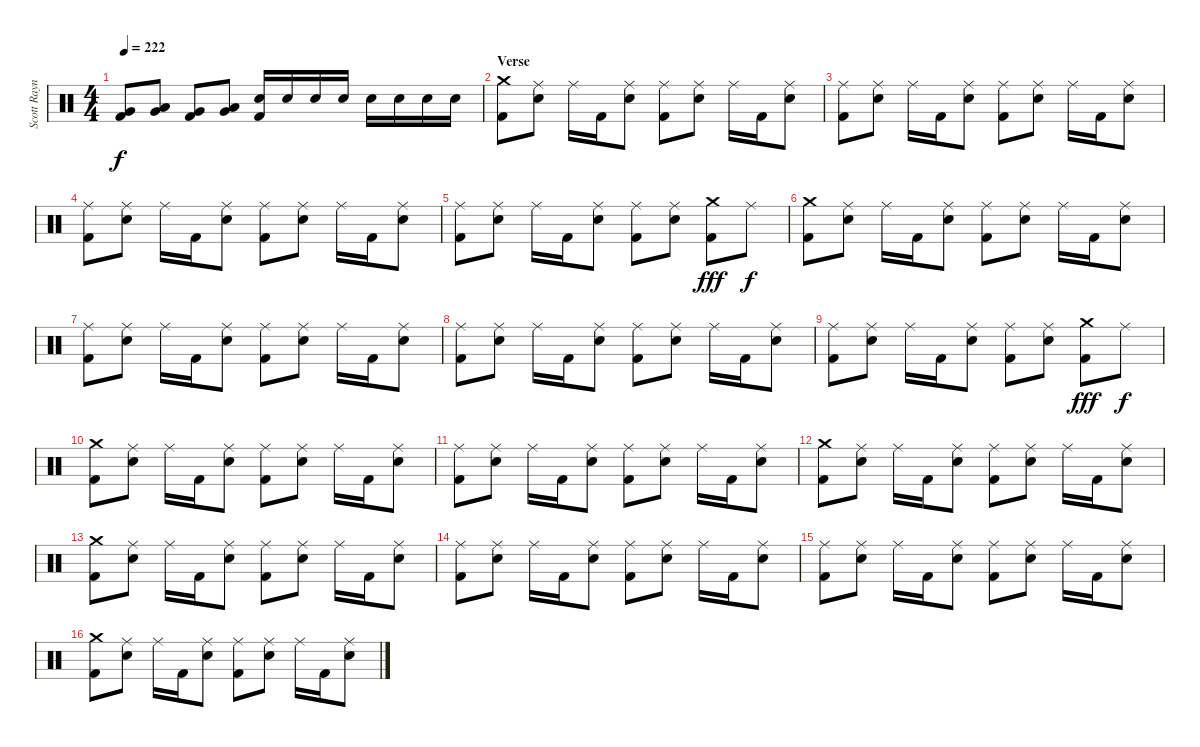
\track ("Scott Raynor - Bateria/Drums" "Scott Rayn") {instrument percussion}
\staff {score}
\articulation defaults
\ts (4 4)
\tempo 222
\clef neutral
\ks c
("Very Low Tom (hit)" "Kick (hit) 2").8{dy f} ("Low Tom (hit)" "Very Low Tom (hit)").8 ("Very Low Tom (hit)" "Kick (hit) 2").8 ("Low Tom (hit)" "Very Low Tom (hit)").8 ("Electric Snare (hit)" "Kick (hit) 2").16 "Electric Snare (hit)".16 "Electric Snare (hit)".16 "Electric Snare (hit)".16 "Electric Snare (hit)".16 "Electric Snare (hit)".16 "Electric Snare (hit)".16 "Electric Snare (hit)".16 |
\section ("" "Verse")
("Crash medium (hit)" "Kick (hit) 2").8 ("Ride (middle)" "Electric Snare (hit)").8 "Ride (middle)".16 "Kick (hit) 2".16 ("Ride (middle)" "Electric Snare (hit)").8 ("Ride (middle)" "Kick (hit) 2").8 ("Ride (middle)" "Electric Snare (hit)").8 "Ride (middle)".16 "Kick (hit) 2".16 ("Ride (middle)" "Electric Snare (hit)").8 |
("Ride (middle)" "Kick (hit) 2").8 ("Ride (middle)" "Electric Snare (hit)").8 "Ride (middle)".16 "Kick (hit) 2".16 ("Ride (middle)" "Electric Snare (hit)").8 ("Ride (middle)" "Kick (hit) 2").8 ("Ride (middle)" "Electric Snare (hit)").8 "Ride (middle)".16 "Kick (hit) 2".16 ("Ride (middle)" "Electric Snare (hit)").8 |
("Ride (middle)" "Kick (hit) 2").8 ("Ride (middle)" "Electric Snare (hit)").8 "Ride (middle)".16 "Kick (hit) 2".16 ("Ride (middle)" "Electric Snare (hit)").8 ("Ride (middle)" "Kick (hit) 2").8 ("Ride (middle)" "Electric Snare (hit)").8 "Ride (middle)".16 "Kick (hit) 2".16 ("Ride (middle)" "Electric Snare (hit)").8 |
("Ride (middle)" "Kick (hit) 2").8 ("Ride (middle)" "Electric Snare (hit)").8 "Ride (middle)".16 "Kick (hit) 2".16 ("Ride (middle)" "Electric Snare (hit)").8 ("Ride (middle)" "Kick (hit) 2").8 ("Ride (middle)" "Electric Snare (hit)").8 ("Crash medium (hit)" "Kick (hit) 2").8{dy fff} "Ride (middle)".8{dy f} |
("Crash medium (hit)" "Kick (hit) 2").8 ("Ride (middle)" "Electric Snare (hit)").8 "Ride (middle)".16 "Kick (hit) 2".16 ("Ride (middle)" "Electric Snare (hit)").8 ("Ride (middle)" "Kick (hit) 2").8 ("Ride (middle)" "Electric Snare (hit)").8 "Ride (middle)".16 "Kick (hit) 2".16 ("Ride (middle)" "Electric Snare (hit)").8 |
("Ride (middle)" "Kick (hit) 2").8 ("Ride (middle)" "Electric Snare (hit)").8 "Ride (middle)".16 "Kick (hit) 2".16 ("Ride (middle)" "Electric Snare (hit)").8 ("Ride (middle)" "Kick (hit) 2").8 ("Ride (middle)" "Electric Snare (hit)").8 "Ride (middle)".16 "Kick (hit) 2".16 ("Ride (middle)" "Electric Snare (hit)").8 |
("Ride (middle)" "Kick (hit) 2").8 ("Ride (middle)" "Electric Snare (hit)").8 "Ride (middle)".16 "Kick (hit) 2".16 ("Ride (middle)" "Electric Snare (hit)").8 ("Ride (middle)" "Kick (hit) 2").8 ("Ride (middle)" "Electric Snare (hit)").8 "Ride (middle)".16 "Kick (hit) 2".16 ("Ride (middle)" "Electric Snare (hit)").8 |
("Ride (middle)" "Kick (hit) 2").8 ("Ride (middle)" "Electric Snare (hit)").8 "Ride (middle)".16 "Kick (hit) 2".16 ("Ride (middle)" "Electric Snare (hit)").8 ("Ride (middle)" "Kick (hit) 2").8 ("Ride (middle)" "Electric Snare (hit)").8 ("Crash medium (hit)" "Kick (hit) 2").8{dy fff} "Ride (middle)".8{dy f} |
("Crash medium (hit)" "Kick (hit) 2").8 ("Ride (middle)" "Electric Snare (hit)").8 "Ride (middle)".16 "Kick (hit) 2".16 ("Ride (middle)" "Electric Snare (hit)").8 ("Ride (middle)" "Kick (hit) 2").8 ("Ride (middle)" "Electric Snare (hit)").8 "Ride (middle)".16 "Kick (hit) 2".16 ("Ride (middle)" "Electric Snare (hit)").8 |
("Ride (middle)" "Kick (hit) 2").8 ("Ride (middle)" "Electric Snare (hit)").8 "Ride (middle)".16 "Kick (hit) 2".16 ("Ride (middle)" "Electric Snare (hit)").8 ("Ride (middle)" "Kick (hit) 2").8 ("Ride (middle)" "Electric Snare (hit)").8 "Ride (middle)".16 "Kick (hit) 2".16 ("Ride (middle)" "Electric Snare (hit)").8 |
("Crash medium (hit)" "Kick (hit) 2").8 ("Ride (middle)" "Electric Snare (hit)").8 "Ride (middle)".16 "Kick (hit) 2".16 ("Ride (middle)" "Electric Snare (hit)").8 ("Ride (middle)" "Kick (hit) 2").8 ("Ride (middle)" "Electric Snare (hit)").8 "Ride (middle)".16 "Kick (hit) 2".16 ("Ride (middle)" "Electric Snare (hit)").8 |
("Crash medium (hit)" "Kick (hit) 2").8 ("Ride (middle)" "Electric Snare (hit)").8 "Ride (middle)".16 "Kick (hit) 2".16 ("Ride (middle)" "Electric Snare (hit)").8 ("Ride (middle)" "Kick (hit) 2").8 ("Ride (middle)" "Electric Snare (hit)").8 "Ride (middle)".16 "Kick (hit) 2".16 ("Ride (middle)" "Electric Snare (hit)").8 |
("Ride (middle)" "Kick (hit) 2").8 ("Ride (middle)" "Electric Snare (hit)").8 "Ride (middle)".16 "Kick (hit) 2".16 ("Ride (middle)" "Electric Snare (hit)").8 ("Ride (middle)" "Kick (hit) 2").8 ("Ride (middle)" "Electric Snare (hit)").8 "Ride (middle)".16 "Kick (hit) 2".16 ("Ride (middle)" "Electric Snare (hit)").8 |
("Ride (middle)" "Kick (hit) 2").8 ("Ride (middle)" "Electric Snare (hit)").8 "Ride (middle)".16 "Kick (hit) 2".16 ("Ride (middle)" "Electric Snare (hit)").8 ("Ride (middle)" "Kick (hit) 2").8 ("Ride (middle)" "Electric Snare (hit)").8 "Ride (middle)".16 "Kick (hit) 2".16 ("Ride (middle)" "Electric Snare (hit)").8 |
("Crash medium (hit)" "Kick (hit) 2").8 ("Ride (middle)" "Electric Snare (hit)").8 "Ride (middle)".16 "Kick (hit) 2".16 ("Ride (middle)" "Electric Snare (hit)").8 ("Ride (middle)" "Kick (hit) 2").8 ("Ride (middle)" "Electric Snare (hit)").8 "Ride (middle)".16 "Kick (hit) 2".16 ("Ride (middle)" "Electric Snare (hit)").8
